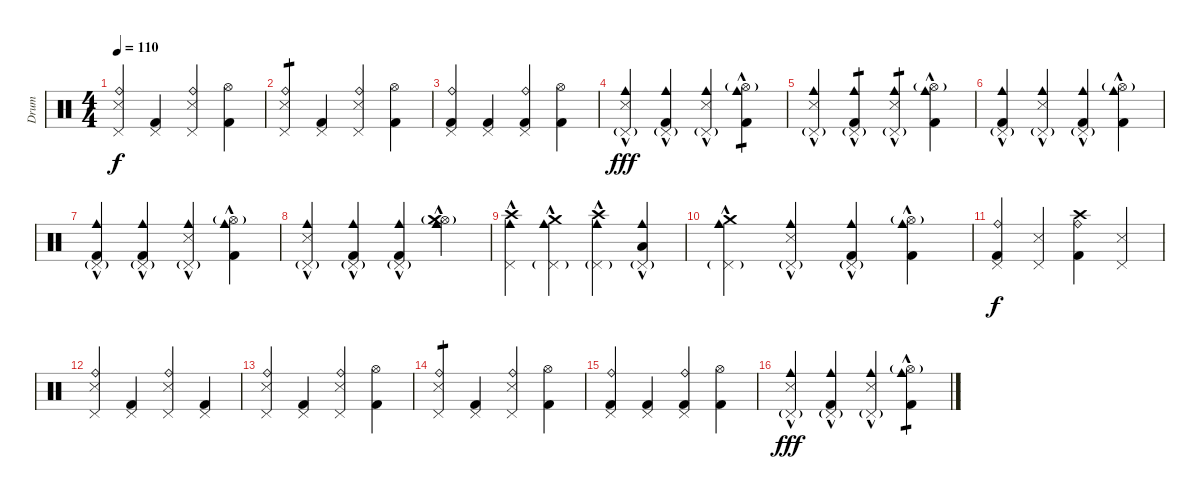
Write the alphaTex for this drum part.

\track ("Drum" "Drum") {instrument percussion}
\staff {score}
\articulation defaults
\ts (4 4)
\tempo 110
\clef neutral
\ks c
("Pedal Hi-Hat (hit)" "Snare (side stick) 3" "Ride (bell)").4{dy f} ("Pedal Hi-Hat (hit)" "Kick (hit) 2").4 ("Pedal Hi-Hat (hit)" "Snare (side stick) 3" "Ride (bell)").4 ("Hi-Hat (open)" "Kick (hit) 2").4 |
("Pedal Hi-Hat (hit)" "Snare (side stick) 3" "Ride (bell)").4{tp 1} ("Pedal Hi-Hat (hit)" "Kick (hit) 2").4 ("Pedal Hi-Hat (hit)" "Snare (side stick) 3" "Ride (bell)").4 ("Hi-Hat (open)" "Kick (hit) 2").4 |
("Pedal Hi-Hat (hit)" "Kick (hit) 2" "Ride (bell)").4 ("Pedal Hi-Hat (hit)" "Kick (hit) 2").4 ("Pedal Hi-Hat (hit)" "Kick (hit) 2" "Ride (bell)").4 ("Hi-Hat (open)" "Kick (hit) 2").4 |
("Pedal Hi-Hat (hit)"{g} "Cowbell medium (hit)"{hac} "Snare (side stick) 3"{hac}).4{dy fff} ("Pedal Hi-Hat (hit)"{g} "Cowbell medium (hit)"{hac} "Kick (hit) 2").4 ("Pedal Hi-Hat (hit)"{g} "Cowbell medium (hit)"{hac} "Snare (side stick) 3"{hac}).4 ("Hi-Hat (open)"{g} "Cowbell medium (hit)"{hac} "Kick (hit) 2").4{tp 1} |
("Pedal Hi-Hat (hit)"{g} "Cowbell medium (hit)"{hac} "Snare (side stick) 3"{hac}).4 ("Pedal Hi-Hat (hit)"{g} "Cowbell medium (hit)"{hac} "Kick (hit) 2").4{tp 1} ("Pedal Hi-Hat (hit)"{g} "Cowbell medium (hit)"{hac} "Snare (side stick) 3"{hac}).4{tp 1} ("Hi-Hat (open)"{g} "Cowbell medium (hit)"{hac} "Kick (hit) 2").4 |
("Pedal Hi-Hat (hit)"{g} "Cowbell medium (hit)"{hac} "Kick (hit) 2").4 ("Pedal Hi-Hat (hit)"{g} "Cowbell medium (hit)"{hac} "Snare (side stick) 3"{hac}).4 ("Pedal Hi-Hat (hit)"{g} "Cowbell medium (hit)"{hac} "Kick (hit) 2").4 ("Hi-Hat (open)"{g} "Cowbell medium (hit)"{hac} "Kick (hit) 2").4 |
("Pedal Hi-Hat (hit)"{g} "Cowbell medium (hit)"{hac} "Kick (hit) 2").4 ("Pedal Hi-Hat (hit)"{g} "Cowbell medium (hit)"{hac} "Kick (hit) 2").4 ("Pedal Hi-Hat (hit)"{g} "Cowbell medium (hit)"{hac} "Snare (side stick) 3"{hac}).4 ("Hi-Hat (open)"{g} "Cowbell medium (hit)"{hac} "Kick (hit) 2").4 |
("Pedal Hi-Hat (hit)"{g} "Cowbell medium (hit)"{hac} "Snare (side stick) 3"{hac}).4 ("Pedal Hi-Hat (hit)"{g} "Cowbell medium (hit)"{hac} "Kick (hit) 2").4 ("Pedal Hi-Hat (hit)"{g} "Cowbell medium (hit)"{hac} "Kick (hit) 2").4 ("Hi-Hat (open)"{g} "Cowbell medium (hit)"{hac} "Crash medium (hit)"{hac}).4 |
("Pedal Hi-Hat (hit)" "Cowbell medium (hit)"{hac} "Crash high (hit)").4 ("Pedal Hi-Hat (hit)"{g} "Cowbell medium (hit)"{hac} "Crash medium (hit)").4 ("Pedal Hi-Hat (hit)"{g} "Cowbell medium (hit)"{hac} "Crash high (hit)").4 ("Pedal Hi-Hat (hit)"{g} "Cowbell medium (hit)"{hac} "Low Tom (hit)").4 |
("Pedal Hi-Hat (hit)"{g} "Cowbell medium (hit)"{hac} "Crash medium (hit)").4 ("Pedal Hi-Hat (hit)"{g} "Cowbell medium (hit)"{hac} "Snare (side stick) 3"{hac}).4 ("Pedal Hi-Hat (hit)"{g} "Cowbell medium (hit)"{hac} "Kick (hit) 2").4 ("Hi-Hat (open)"{g} "Cowbell medium (hit)"{hac} "Kick (hit) 2").4 |
("Pedal Hi-Hat (hit)" "Kick (hit) 2" "Ride (bell)").4{dy f} ("Pedal Hi-Hat (hit)" "Snare (side stick) 3").4 ("Crash high (hit)" "Kick (hit) 2" "Ride (bell)").4 ("Pedal Hi-Hat (hit)" "Snare (side stick) 3").4 |
("Pedal Hi-Hat (hit)" "Snare (side stick) 3" "Ride (bell)").4 ("Pedal Hi-Hat (hit)" "Kick (hit) 2").4 ("Pedal Hi-Hat (hit)" "Snare (side stick) 3" "Ride (bell)").4 ("Pedal Hi-Hat (hit)" "Kick (hit) 2").4 |
("Pedal Hi-Hat (hit)" "Snare (side stick) 3" "Ride (bell)").4 ("Pedal Hi-Hat (hit)" "Kick (hit) 2").4 ("Pedal Hi-Hat (hit)" "Snare (side stick) 3" "Ride (bell)").4 ("Hi-Hat (open)" "Kick (hit) 2").4 |
("Pedal Hi-Hat (hit)" "Snare (side stick) 3" "Ride (bell)").4{tp 1} ("Pedal Hi-Hat (hit)" "Kick (hit) 2").4 ("Pedal Hi-Hat (hit)" "Snare (side stick) 3" "Ride (bell)").4 ("Hi-Hat (open)" "Kick (hit) 2").4 |
("Pedal Hi-Hat (hit)" "Kick (hit) 2" "Ride (bell)").4 ("Pedal Hi-Hat (hit)" "Kick (hit) 2").4 ("Pedal Hi-Hat (hit)" "Kick (hit) 2" "Ride (bell)").4 ("Hi-Hat (open)" "Kick (hit) 2").4 |
("Pedal Hi-Hat (hit)"{g} "Cowbell medium (hit)"{hac} "Snare (side stick) 3"{hac}).4{dy fff} ("Pedal Hi-Hat (hit)"{g} "Cowbell medium (hit)"{hac} "Kick (hit) 2").4 ("Pedal Hi-Hat (hit)"{g} "Cowbell medium (hit)"{hac} "Snare (side stick) 3"{hac}).4 ("Hi-Hat (open)"{g} "Cowbell medium (hit)"{hac} "Kick (hit) 2").4{tp 1}
